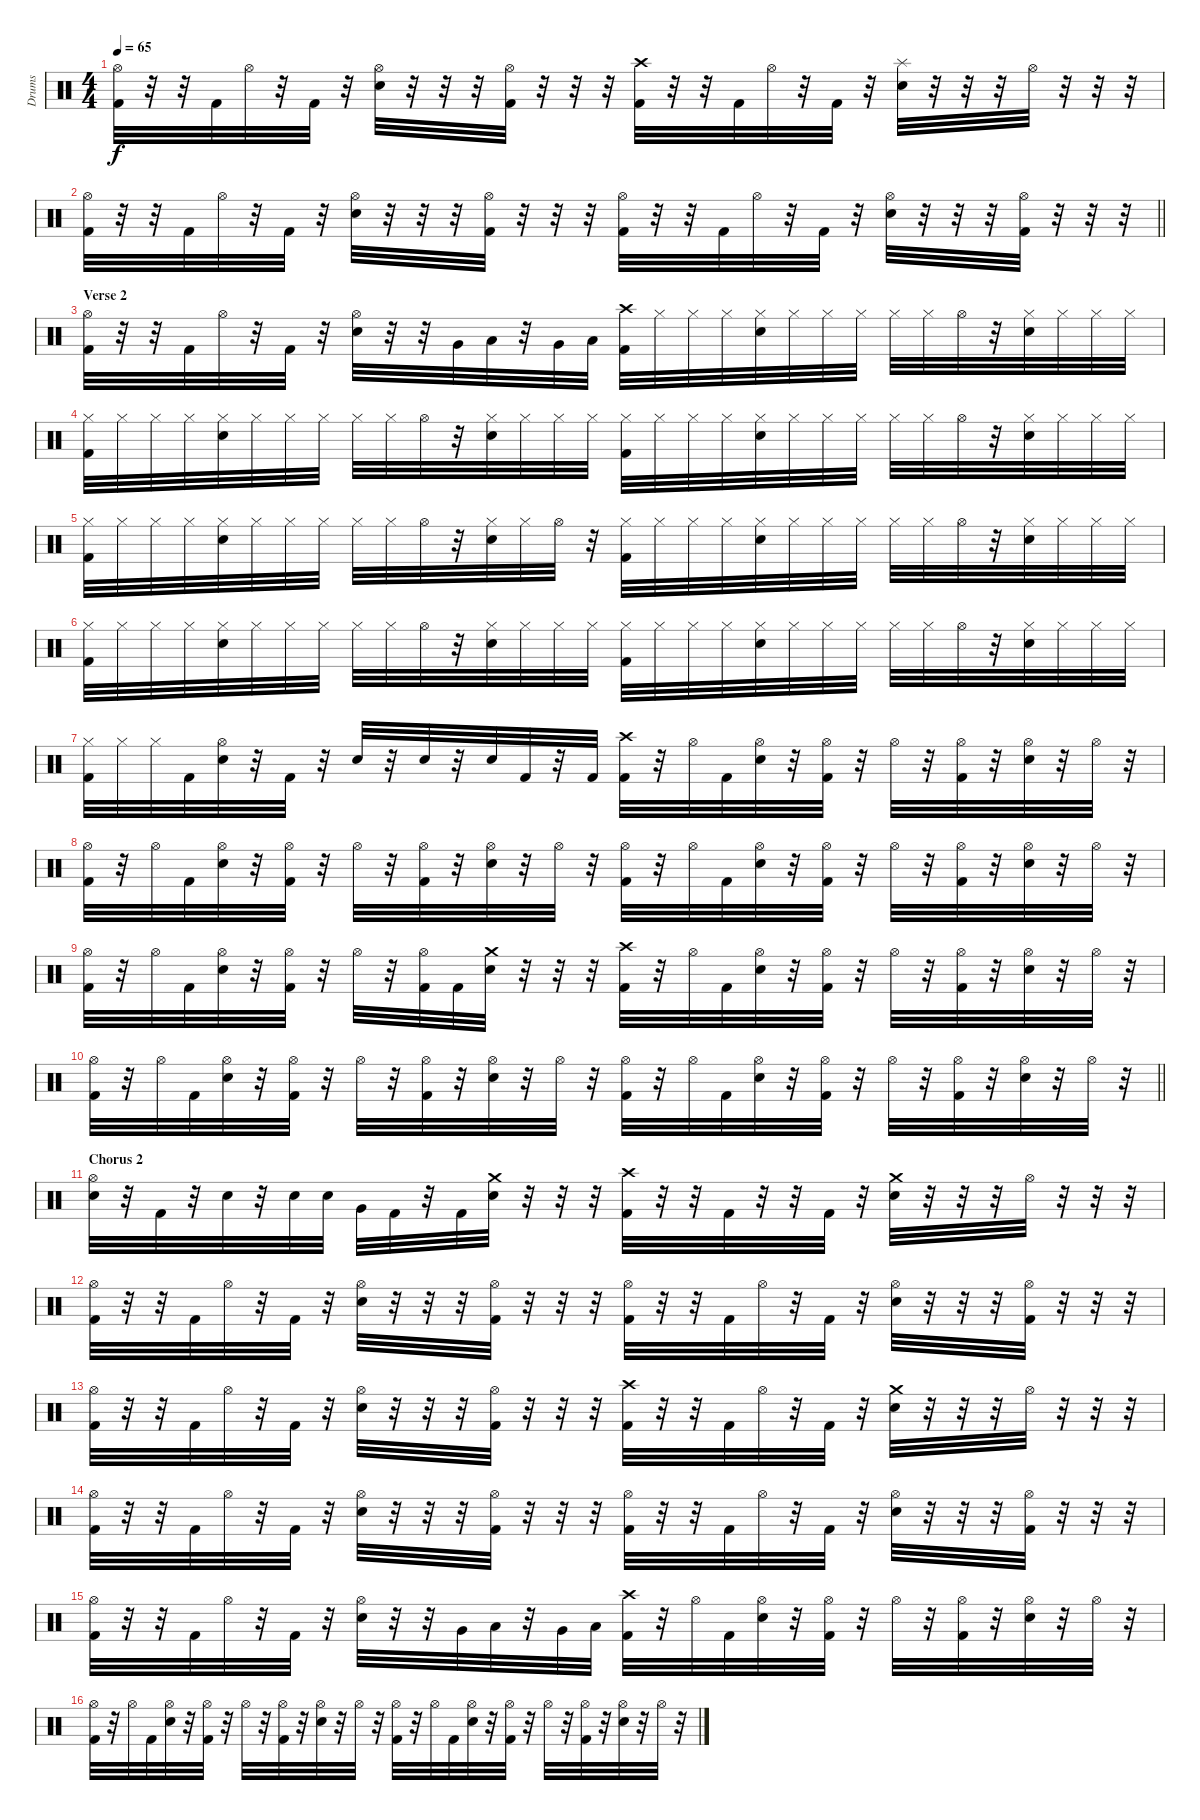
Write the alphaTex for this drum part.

\track ("Drums" "Drums") {instrument percussion}
\staff {score}
\articulation defaults
\ts (4 4)
\tempo 65
\clef neutral
\ks c
("Hi-Hat (open)" "Kick (hit) 2").32{dy f} r.32 r.32 "Kick (hit) 2".32 "Hi-Hat (open)".32 r.32 "Kick (hit) 2".32 r.32 ("Hi-Hat (open)" "Snare (hit) 2").32 r.32 r.32 r.32 ("Hi-Hat (open)" "Kick (hit) 2").32 r.32 r.32 r.32 ("Crash high (hit)" "Kick (hit) 2").32 r.32 r.32 "Kick (hit) 2".32 "Hi-Hat (open)".32 r.32 "Kick (hit) 2".32 r.32 ("Splash (hit)" "Snare (hit) 2").32 r.32 r.32 r.32 "Hi-Hat (open)".32 r.32 r.32 r.32 |
\barLineRight lightlight
("Hi-Hat (open)" "Kick (hit) 2").32 r.32 r.32 "Kick (hit) 2".32 "Hi-Hat (open)".32 r.32 "Kick (hit) 2".32 r.32 ("Hi-Hat (open)" "Snare (hit) 2").32 r.32 r.32 r.32 ("Hi-Hat (open)" "Kick (hit) 2").32 r.32 r.32 r.32 ("Hi-Hat (open)" "Kick (hit) 2").32 r.32 r.32 "Kick (hit) 2".32 "Hi-Hat (open)".32 r.32 "Kick (hit) 2".32 r.32 ("Hi-Hat (open)" "Snare (hit) 2").32 r.32 r.32 r.32 ("Hi-Hat (open)" "Kick (hit) 2").32 r.32 r.32 r.32 |
\section ("" "Verse 2")
("Hi-Hat (open)" "Kick (hit) 2").32 r.32 r.32 "Kick (hit) 2".32 "Hi-Hat (open)".32 r.32 "Kick (hit) 2".32 r.32 ("Hi-Hat (open)" "Snare (hit) 2").32 r.32 r.32 "Very Low Tom (hit)".32 "Low Tom (hit)".32 r.32 "Very Low Tom (hit)".32 "Low Floor Tom (hit)".32 ("Crash high (hit)" "Kick (hit) 2").32 "Hi-Hat (closed)".32 "Hi-Hat (closed)".32 "Hi-Hat (closed)".32 ("Hi-Hat (closed)" "Snare (hit) 2").32 "Hi-Hat (closed)".32 "Hi-Hat (closed)".32 "Hi-Hat (closed)".32 "Hi-Hat (closed)".32 "Hi-Hat (closed)".32 "Hi-Hat (open)".32 r.32 ("Hi-Hat (closed)" "Snare (hit) 2").32 "Hi-Hat (closed)".32 "Hi-Hat (closed)".32 "Hi-Hat (closed)".32 |
("Hi-Hat (closed)" "Kick (hit) 2").32 "Hi-Hat (closed)".32 "Hi-Hat (closed)".32 "Hi-Hat (closed)".32 ("Hi-Hat (closed)" "Snare (hit) 2").32 "Hi-Hat (closed)".32 "Hi-Hat (closed)".32 "Hi-Hat (closed)".32 "Hi-Hat (closed)".32 "Hi-Hat (closed)".32 "Hi-Hat (open)".32 r.32 ("Hi-Hat (closed)" "Snare (hit) 2").32 "Hi-Hat (closed)".32 "Hi-Hat (closed)".32 "Hi-Hat (closed)".32 ("Hi-Hat (closed)" "Kick (hit) 2").32 "Hi-Hat (closed)".32 "Hi-Hat (closed)".32 "Hi-Hat (closed)".32 ("Hi-Hat (closed)" "Snare (hit) 2").32 "Hi-Hat (closed)".32 "Hi-Hat (closed)".32 "Hi-Hat (closed)".32 "Hi-Hat (closed)".32 "Hi-Hat (closed)".32 "Hi-Hat (open)".32 r.32 ("Hi-Hat (closed)" "Snare (hit) 2").32 "Hi-Hat (closed)".32 "Hi-Hat (closed)".32 "Hi-Hat (closed)".32 |
("Hi-Hat (closed)" "Kick (hit) 2").32 "Hi-Hat (closed)".32 "Hi-Hat (closed)".32 "Hi-Hat (closed)".32 ("Hi-Hat (closed)" "Snare (hit) 2").32 "Hi-Hat (closed)".32 "Hi-Hat (closed)".32 "Hi-Hat (closed)".32 "Hi-Hat (closed)".32 "Hi-Hat (closed)".32 "Hi-Hat (open)".32 r.32 ("Hi-Hat (closed)" "Snare (hit) 2").32 "Hi-Hat (closed)".32 "Hi-Hat (open)".32 r.32 ("Hi-Hat (closed)" "Kick (hit) 2").32 "Hi-Hat (closed)".32 "Hi-Hat (closed)".32 "Hi-Hat (closed)".32 ("Hi-Hat (closed)" "Snare (hit) 2").32 "Hi-Hat (closed)".32 "Hi-Hat (closed)".32 "Hi-Hat (closed)".32 "Hi-Hat (closed)".32 "Hi-Hat (closed)".32 "Hi-Hat (open)".32 r.32 ("Hi-Hat (closed)" "Snare (hit) 2").32 "Hi-Hat (closed)".32 "Hi-Hat (closed)".32 "Hi-Hat (closed)".32 |
("Hi-Hat (closed)" "Kick (hit) 2").32 "Hi-Hat (closed)".32 "Hi-Hat (closed)".32 "Hi-Hat (closed)".32 ("Hi-Hat (closed)" "Snare (hit) 2").32 "Hi-Hat (closed)".32 "Hi-Hat (closed)".32 "Hi-Hat (closed)".32 "Hi-Hat (closed)".32 "Hi-Hat (closed)".32 "Hi-Hat (open)".32 r.32 ("Hi-Hat (closed)" "Snare (hit) 2").32 "Hi-Hat (closed)".32 "Hi-Hat (closed)".32 "Hi-Hat (closed)".32 ("Hi-Hat (closed)" "Kick (hit) 2").32 "Hi-Hat (closed)".32 "Hi-Hat (closed)".32 "Hi-Hat (closed)".32 ("Hi-Hat (closed)" "Snare (hit) 2").32 "Hi-Hat (closed)".32 "Hi-Hat (closed)".32 "Hi-Hat (closed)".32 "Hi-Hat (closed)".32 "Hi-Hat (closed)".32 "Hi-Hat (open)".32 r.32 ("Hi-Hat (closed)" "Snare (hit) 2").32 "Hi-Hat (closed)".32 "Hi-Hat (closed)".32 "Hi-Hat (closed)".32 |
("Hi-Hat (closed)" "Kick (hit) 2").32 "Hi-Hat (closed)".32 "Hi-Hat (closed)".32 "Kick (hit) 2".32 ("Hi-Hat (open)" "Snare (hit) 2").32 r.32 "Kick (hit) 2".32 r.32 "Snare (hit) 2".32 r.32 "Snare (hit) 2".32 r.32 "Snare (hit) 2".32 "Kick (hit) 2".32 r.32 "Kick (hit) 2".32 ("Crash high (hit)" "Kick (hit) 2").32 r.32 "Hi-Hat (open)".32 "Kick (hit) 2".32 ("Hi-Hat (open)" "Snare (hit) 2").32 r.32 ("Hi-Hat (open)" "Kick (hit) 2").32 r.32 "Hi-Hat (open)".32 r.32 ("Hi-Hat (open)" "Kick (hit) 2").32 r.32 ("Hi-Hat (open)" "Snare (hit) 2").32 r.32 "Hi-Hat (open)".32 r.32 |
("Hi-Hat (open)" "Kick (hit) 2").32 r.32 "Hi-Hat (open)".32 "Kick (hit) 2".32 ("Hi-Hat (open)" "Snare (hit) 2").32 r.32 ("Hi-Hat (open)" "Kick (hit) 2").32 r.32 "Hi-Hat (open)".32 r.32 ("Hi-Hat (open)" "Kick (hit) 2").32 r.32 ("Hi-Hat (open)" "Snare (hit) 2").32 r.32 "Hi-Hat (open)".32 r.32 ("Hi-Hat (open)" "Kick (hit) 2").32 r.32 "Hi-Hat (open)".32 "Kick (hit) 2".32 ("Hi-Hat (open)" "Snare (hit) 2").32 r.32 ("Hi-Hat (open)" "Kick (hit) 2").32 r.32 "Hi-Hat (open)".32 r.32 ("Hi-Hat (open)" "Kick (hit) 2").32 r.32 ("Hi-Hat (open)" "Snare (hit) 2").32 r.32 "Hi-Hat (open)".32 r.32 |
("Hi-Hat (open)" "Kick (hit) 2").32 r.32 "Hi-Hat (open)".32 "Kick (hit) 2".32 ("Hi-Hat (open)" "Snare (hit) 2").32 r.32 ("Hi-Hat (open)" "Kick (hit) 2").32 r.32 "Hi-Hat (open)".32 r.32 ("Hi-Hat (open)" "Kick (hit) 2").32 "Kick (hit) 2".32 ("Crash medium (hit)" "Snare (hit) 2").32 r.32 r.32 r.32 ("Crash high (hit)" "Kick (hit) 2").32 r.32 "Hi-Hat (open)".32 "Kick (hit) 2".32 ("Hi-Hat (open)" "Snare (hit) 2").32 r.32 ("Hi-Hat (open)" "Kick (hit) 2").32 r.32 "Hi-Hat (open)".32 r.32 ("Hi-Hat (open)" "Kick (hit) 2").32 r.32 ("Hi-Hat (open)" "Snare (hit) 2").32 r.32 "Hi-Hat (open)".32 r.32 |
\barLineRight lightlight
("Hi-Hat (open)" "Kick (hit) 2").32 r.32 "Hi-Hat (open)".32 "Kick (hit) 2".32 ("Hi-Hat (open)" "Snare (hit) 2").32 r.32 ("Hi-Hat (open)" "Kick (hit) 2").32 r.32 "Hi-Hat (open)".32 r.32 ("Hi-Hat (open)" "Kick (hit) 2").32 r.32 ("Hi-Hat (open)" "Snare (hit) 2").32 r.32 "Hi-Hat (open)".32 r.32 ("Hi-Hat (open)" "Kick (hit) 2").32 r.32 "Hi-Hat (open)".32 "Kick (hit) 2".32 ("Hi-Hat (open)" "Snare (hit) 2").32 r.32 ("Hi-Hat (open)" "Kick (hit) 2").32 r.32 "Hi-Hat (open)".32 r.32 ("Hi-Hat (open)" "Kick (hit) 2").32 r.32 ("Hi-Hat (open)" "Snare (hit) 2").32 r.32 "Hi-Hat (open)".32 r.32 |
\section ("" "Chorus 2")
("Hi-Hat (open)" "Snare (hit) 2").32 r.32 "Kick (hit) 2".32 r.32 "Snare (hit) 2".32 r.32 "Snare (hit) 2".32 "Snare (hit) 2".32 "Very Low Tom (hit)".32 "Kick (hit) 2".32 r.32 "Kick (hit) 2".32 ("Snare (hit) 2" "Crash medium (hit)").32 r.32 r.32 r.32 ("Crash high (hit)" "Kick (hit) 2").32 r.32 r.32 "Kick (hit) 2".32 r.32 r.32 "Kick (hit) 2".32 r.32 ("Crash medium (hit)" "Snare (hit) 2").32 r.32 r.32 r.32 "Hi-Hat (open)".32 r.32 r.32 r.32 |
("Hi-Hat (open)" "Kick (hit) 2").32 r.32 r.32 "Kick (hit) 2".32 "Hi-Hat (open)".32 r.32 "Kick (hit) 2".32 r.32 ("Hi-Hat (open)" "Snare (hit) 2").32 r.32 r.32 r.32 ("Hi-Hat (open)" "Kick (hit) 2").32 r.32 r.32 r.32 ("Hi-Hat (open)" "Kick (hit) 2").32 r.32 r.32 "Kick (hit) 2".32 "Hi-Hat (open)".32 r.32 "Kick (hit) 2".32 r.32 ("Hi-Hat (open)" "Snare (hit) 2").32 r.32 r.32 r.32 ("Hi-Hat (open)" "Kick (hit) 2").32 r.32 r.32 r.32 |
("Hi-Hat (open)" "Kick (hit) 2").32 r.32 r.32 "Kick (hit) 2".32 "Hi-Hat (open)".32 r.32 "Kick (hit) 2".32 r.32 ("Hi-Hat (open)" "Snare (hit) 2").32 r.32 r.32 r.32 ("Hi-Hat (open)" "Kick (hit) 2").32 r.32 r.32 r.32 ("Crash high (hit)" "Kick (hit) 2").32 r.32 r.32 "Kick (hit) 2".32 "Hi-Hat (open)".32 r.32 "Kick (hit) 2".32 r.32 ("Crash medium (hit)" "Snare (hit) 2").32 r.32 r.32 r.32 "Hi-Hat (open)".32 r.32 r.32 r.32 |
("Hi-Hat (open)" "Kick (hit) 2").32 r.32 r.32 "Kick (hit) 2".32 "Hi-Hat (open)".32 r.32 "Kick (hit) 2".32 r.32 ("Hi-Hat (open)" "Snare (hit) 2").32 r.32 r.32 r.32 ("Hi-Hat (open)" "Kick (hit) 2").32 r.32 r.32 r.32 ("Hi-Hat (open)" "Kick (hit) 2").32 r.32 r.32 "Kick (hit) 2".32 "Hi-Hat (open)".32 r.32 "Kick (hit) 2".32 r.32 ("Hi-Hat (open)" "Snare (hit) 2").32 r.32 r.32 r.32 ("Hi-Hat (open)" "Kick (hit) 2").32 r.32 r.32 r.32 |
("Hi-Hat (open)" "Kick (hit) 2").32 r.32 r.32 "Kick (hit) 2".32 "Hi-Hat (open)".32 r.32 "Kick (hit) 2".32 r.32 ("Hi-Hat (open)" "Snare (hit) 2").32 r.32 r.32 "Very Low Tom (hit)".32 "Low Tom (hit)".32 r.32 "Very Low Tom (hit)".32 "Low Floor Tom (hit)".32 ("Crash high (hit)" "Kick (hit) 2").32 r.32 "Hi-Hat (open)".32 "Kick (hit) 2".32 ("Hi-Hat (open)" "Snare (hit) 2").32 r.32 ("Hi-Hat (open)" "Kick (hit) 2").32 r.32 "Hi-Hat (open)".32 r.32 ("Hi-Hat (open)" "Kick (hit) 2").32 r.32 ("Hi-Hat (open)" "Snare (hit) 2").32 r.32 "Hi-Hat (open)".32 r.32 |
("Hi-Hat (open)" "Kick (hit) 2").32 r.32 "Hi-Hat (open)".32 "Kick (hit) 2".32 ("Hi-Hat (open)" "Snare (hit) 2").32 r.32 ("Hi-Hat (open)" "Kick (hit) 2").32 r.32 "Hi-Hat (open)".32 r.32 ("Hi-Hat (open)" "Kick (hit) 2").32 r.32 ("Hi-Hat (open)" "Snare (hit) 2").32 r.32 "Hi-Hat (open)".32 r.32 ("Hi-Hat (open)" "Kick (hit) 2").32 r.32 "Hi-Hat (open)".32 "Kick (hit) 2".32 ("Hi-Hat (open)" "Snare (hit) 2").32 r.32 ("Hi-Hat (open)" "Kick (hit) 2").32 r.32 "Hi-Hat (open)".32 r.32 ("Hi-Hat (open)" "Kick (hit) 2").32 r.32 ("Hi-Hat (open)" "Snare (hit) 2").32 r.32 "Hi-Hat (open)".32 r.32
